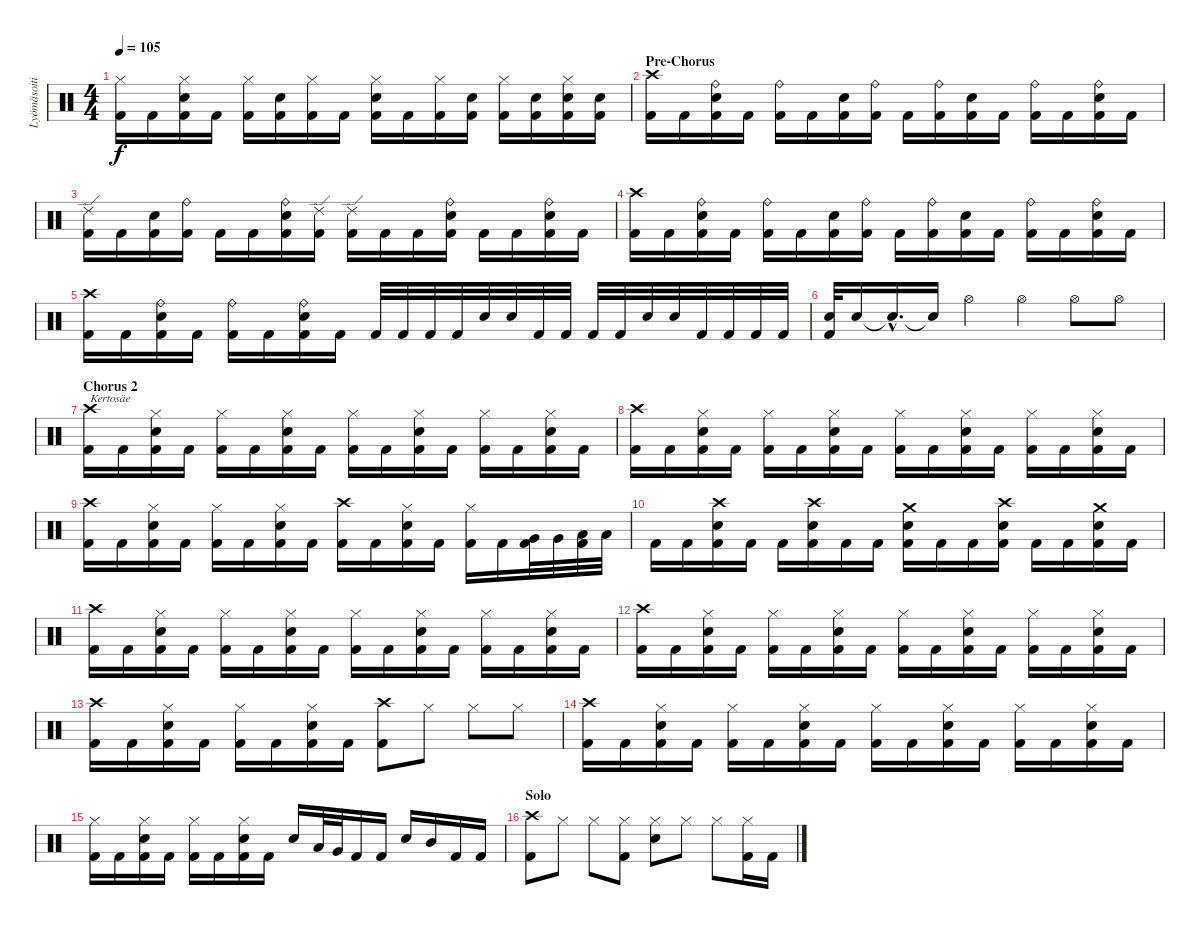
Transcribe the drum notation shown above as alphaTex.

\track ("Lyömäsoitin" "Lyömäsoiti") {instrument percussion}
\staff {score}
\articulation defaults
\ts (4 4)
\tempo 105
\clef neutral
\ks c
("Hi-Hat (closed)" "Kick (hit) 2").16{dy f} "Kick (hit) 2".16 ("Hi-Hat (closed)" "Snare (hit) 2" "Kick (hit) 2").16 "Kick (hit) 2".16 ("Hi-Hat (closed)" "Kick (hit) 2").16 ("Snare (hit) 2" "Kick (hit) 2").16 ("Hi-Hat (closed)" "Kick (hit) 2").16 "Kick (hit) 2".16 ("Hi-Hat (closed)" "Snare (hit) 2" "Kick (hit) 2").16 "Kick (hit) 2".16 ("Hi-Hat (closed)" "Kick (hit) 2").16 ("Snare (hit) 2" "Kick (hit) 2").16 ("Hi-Hat (closed)" "Kick (hit) 2").16 ("Snare (hit) 2" "Kick (hit) 2").16 ("Hi-Hat (closed)" "Snare (hit) 2" "Kick (hit) 2").16 ("Snare (hit) 2" "Kick (hit) 2").16 |
\section ("" "Pre-Chorus")
("Crash high (hit)" "Kick (hit) 2").16 "Kick (hit) 2".16 ("Ride (bell)" "Snare (hit) 2" "Kick (hit) 2").16 "Kick (hit) 2".16 ("Ride (bell)" "Kick (hit) 2").16 "Kick (hit) 2".16 ("Snare (hit) 2" "Kick (hit) 2").16 ("Ride (bell)" "Kick (hit) 2").16 "Kick (hit) 2".16 ("Ride (bell)" "Kick (hit) 2").16 ("Snare (hit) 2" "Kick (hit) 2").16 "Kick (hit) 2".16 ("Ride (bell)" "Kick (hit) 2").16 "Kick (hit) 2".16 ("Ride (bell)" "Snare (hit) 2" "Kick (hit) 2").16 "Kick (hit) 2".16 |
("Ride (edge) 2" "Kick (hit) 2").16 "Kick (hit) 2".16 ("Snare (hit) 2" "Kick (hit) 2").16 ("Ride (bell)" "Kick (hit) 2").16 "Kick (hit) 2".16 "Kick (hit) 2".16 ("Ride (bell)" "Snare (hit) 2" "Kick (hit) 2").16 ("Ride (edge) 2" "Kick (hit) 2").16 ("Ride (edge) 2" "Kick (hit) 2").16 "Kick (hit) 2".16 "Kick (hit) 2".16 ("Ride (bell)" "Snare (hit) 2" "Kick (hit) 2").16 "Kick (hit) 2".16 "Kick (hit) 2".16 ("Ride (bell)" "Snare (hit) 2" "Kick (hit) 2").16 "Kick (hit) 2".16 |
("Crash high (hit)" "Kick (hit) 2").16 "Kick (hit) 2".16 ("Ride (bell)" "Snare (hit) 2" "Kick (hit) 2").16 "Kick (hit) 2".16 ("Ride (bell)" "Kick (hit) 2").16 "Kick (hit) 2".16 ("Snare (hit) 2" "Kick (hit) 2").16 ("Ride (bell)" "Kick (hit) 2").16 "Kick (hit) 2".16 ("Ride (bell)" "Kick (hit) 2").16 ("Snare (hit) 2" "Kick (hit) 2").16 "Kick (hit) 2".16 ("Ride (bell)" "Kick (hit) 2").16 "Kick (hit) 2".16 ("Ride (bell)" "Snare (hit) 2" "Kick (hit) 2").16 "Kick (hit) 2".16 |
("Crash high (hit)" "Kick (hit) 2").16 "Kick (hit) 2".16 ("Ride (bell)" "Snare (hit) 2" "Kick (hit) 2").16 "Kick (hit) 2".16 ("Ride (bell)" "Kick (hit) 2").16 "Kick (hit) 2".16 ("Ride (bell)" "Snare (hit) 2" "Kick (hit) 2").16 "Kick (hit) 2".16 "Kick (hit) 2".32 "Kick (hit) 2".32 "Kick (hit) 2".32 "Kick (hit) 2".32 "Snare (hit) 2".32 "Snare (hit) 2".32 "Kick (hit) 2".32 "Kick (hit) 2".32 "Kick (hit) 2".32 "Kick (hit) 2".32 "Snare (hit) 2".32 "Snare (hit) 2".32 "Kick (hit) 2".32 "Kick (hit) 2".32 "Kick (hit) 2".32 "Kick (hit) 2".32 |
("Snare (hit) 2" "Kick (hit) 2").32 "Snare (hit) 2".16 "Snare (hit)"{hac t}.16{d} "Snare (hit)"{t}.16 "Hi-Hat (open)".4 "Hi-Hat (open)".4 "Hi-Hat (open)".8 "Hi-Hat (open)".8 |
\section ("" "Chorus 2")
("Crash high (hit)" "Kick (hit) 2").16{txt "Kertosäe"} "Kick (hit) 2".16 ("Hi-Hat (closed)" "Snare (hit) 2" "Kick (hit) 2").16 "Kick (hit) 2".16 ("Hi-Hat (closed)" "Kick (hit) 2").16 "Kick (hit) 2".16 ("Hi-Hat (closed)" "Snare (hit) 2" "Kick (hit) 2").16 "Kick (hit) 2".16 ("Hi-Hat (closed)" "Kick (hit) 2").16 "Kick (hit) 2".16 ("Hi-Hat (closed)" "Snare (hit) 2" "Kick (hit) 2").16 "Kick (hit) 2".16 ("Hi-Hat (closed)" "Kick (hit) 2").16 "Kick (hit) 2".16 ("Hi-Hat (closed)" "Snare (hit) 2" "Kick (hit) 2").16 "Kick (hit) 2".16 |
("Crash high (hit)" "Kick (hit) 2").16 "Kick (hit) 2".16 ("Hi-Hat (closed)" "Snare (hit) 2" "Kick (hit) 2").16 "Kick (hit) 2".16 ("Hi-Hat (closed)" "Kick (hit) 2").16 "Kick (hit) 2".16 ("Hi-Hat (closed)" "Snare (hit) 2" "Kick (hit) 2").16 "Kick (hit) 2".16 ("Hi-Hat (closed)" "Kick (hit) 2").16 "Kick (hit) 2".16 ("Hi-Hat (closed)" "Snare (hit) 2" "Kick (hit) 2").16 "Kick (hit) 2".16 ("Hi-Hat (closed)" "Kick (hit) 2").16 "Kick (hit) 2".16 ("Hi-Hat (closed)" "Snare (hit) 2" "Kick (hit) 2").16 "Kick (hit) 2".16 |
("Crash high (hit)" "Kick (hit) 2").16 "Kick (hit) 2".16 ("Hi-Hat (closed)" "Snare (hit) 2" "Kick (hit) 2").16 "Kick (hit) 2".16 ("Hi-Hat (closed)" "Kick (hit) 2").16 "Kick (hit) 2".16 ("Hi-Hat (closed)" "Snare (hit) 2" "Kick (hit) 2").16 "Kick (hit) 2".16 ("Crash high (hit)" "Kick (hit) 2").16 "Kick (hit) 2".16 ("Hi-Hat (closed)" "Snare (hit) 2" "Kick (hit) 2").16 "Kick (hit) 2".16 ("Hi-Hat (closed)" "Kick (hit) 2").16 "Kick (hit) 2".16 ("Very Low Tom (hit)" "Kick (hit) 2").32 "Very Low Tom (hit)".32 ("Low Floor Tom (hit)" "Kick (hit) 2").32 "Low Floor Tom (hit)".32 |
"Kick (hit) 2".16 "Kick (hit) 2".16 ("Crash high (hit)" "Snare (hit) 2" "Kick (hit) 2").16 "Kick (hit) 2".16 "Kick (hit) 2".16 ("Crash high (hit)" "Snare (hit) 2" "Kick (hit) 2").16 "Kick (hit) 2".16 "Kick (hit) 2".16 ("Crash medium (hit)" "Snare (hit) 2" "Kick (hit) 2").16 "Kick (hit) 2".16 "Kick (hit) 2".16 ("Crash high (hit)" "Snare (hit) 2" "Kick (hit) 2").16 "Kick (hit) 2".16 "Kick (hit) 2".16 ("Crash medium (hit)" "Snare (hit) 2" "Kick (hit) 2").16 "Kick (hit) 2".16 |
("Crash high (hit)" "Kick (hit) 2").16 "Kick (hit) 2".16 ("Hi-Hat (closed)" "Snare (hit) 2" "Kick (hit) 2").16 "Kick (hit) 2".16 ("Hi-Hat (closed)" "Kick (hit) 2").16 "Kick (hit) 2".16 ("Hi-Hat (closed)" "Snare (hit) 2" "Kick (hit) 2").16 "Kick (hit) 2".16 ("Hi-Hat (closed)" "Kick (hit) 2").16 "Kick (hit) 2".16 ("Hi-Hat (closed)" "Snare (hit) 2" "Kick (hit) 2").16 "Kick (hit) 2".16 ("Hi-Hat (closed)" "Kick (hit) 2").16 "Kick (hit) 2".16 ("Hi-Hat (closed)" "Snare (hit) 2" "Kick (hit) 2").16 "Kick (hit) 2".16 |
("Crash high (hit)" "Kick (hit) 2").16 "Kick (hit) 2".16 ("Hi-Hat (closed)" "Snare (hit) 2" "Kick (hit) 2").16 "Kick (hit) 2".16 ("Hi-Hat (closed)" "Kick (hit) 2").16 "Kick (hit) 2".16 ("Hi-Hat (closed)" "Snare (hit) 2" "Kick (hit) 2").16 "Kick (hit) 2".16 ("Hi-Hat (closed)" "Kick (hit) 2").16 "Kick (hit) 2".16 ("Hi-Hat (closed)" "Snare (hit) 2" "Kick (hit) 2").16 "Kick (hit) 2".16 ("Hi-Hat (closed)" "Kick (hit) 2").16 "Kick (hit) 2".16 ("Hi-Hat (closed)" "Snare (hit) 2" "Kick (hit) 2").16 "Kick (hit) 2".16 |
("Crash high (hit)" "Kick (hit) 2").16 "Kick (hit) 2".16 ("Hi-Hat (closed)" "Snare (hit) 2" "Kick (hit) 2").16 "Kick (hit) 2".16 ("Hi-Hat (closed)" "Kick (hit) 2").16 "Kick (hit) 2".16 ("Hi-Hat (closed)" "Snare (hit) 2" "Kick (hit) 2").16 "Kick (hit) 2".16 ("Crash high (hit)" "Kick (hit) 2").8 "Hi-Hat (closed)".8 "Hi-Hat (closed)".8 "Hi-Hat (closed)".8 |
("Crash high (hit)" "Kick (hit) 2").16 "Kick (hit) 2".16 ("Hi-Hat (closed)" "Snare (hit) 2" "Kick (hit) 2").16 "Kick (hit) 2".16 ("Hi-Hat (closed)" "Kick (hit) 2").16 "Kick (hit) 2".16 ("Hi-Hat (closed)" "Snare (hit) 2" "Kick (hit) 2").16 "Kick (hit) 2".16 ("Hi-Hat (closed)" "Kick (hit) 2").16 "Kick (hit) 2".16 ("Hi-Hat (closed)" "Snare (hit) 2" "Kick (hit) 2").16 "Kick (hit) 2".16 ("Hi-Hat (closed)" "Kick (hit) 2").16 "Kick (hit) 2".16 ("Hi-Hat (closed)" "Snare (hit) 2" "Kick (hit) 2").16 "Kick (hit) 2".16 |
("Hi-Hat (closed)" "Kick (hit) 2").16 "Kick (hit) 2".16 ("Hi-Hat (closed)" "Snare (hit) 2" "Kick (hit) 2").16 "Kick (hit) 2".16 ("Hi-Hat (closed)" "Kick (hit) 2").16 "Kick (hit) 2".16 ("Hi-Hat (closed)" "Snare (hit) 2" "Kick (hit) 2").16 "Kick (hit) 2".16 "Snare (hit) 2".16 "Low Tom (hit)".32 "Very Low Tom (hit)".32 "Kick (hit) 2".16 "Kick (hit) 2".16 "Snare (hit) 2".16 "Mid Tom (hit)".16 "Kick (hit) 2".16 "Kick (hit) 2".16 |
\section ("" "Solo")
("Crash high (hit)" "Kick (hit) 2").8 "Hi-Hat (closed)".8 "Hi-Hat (closed)".8 ("Hi-Hat (closed)" "Kick (hit) 2").8 ("Hi-Hat (closed)" "Snare (hit) 2").8 "Hi-Hat (closed)".8 "Hi-Hat (closed)".8 ("Hi-Hat (closed)" "Kick (hit) 2").16 "Kick (hit) 2".16
